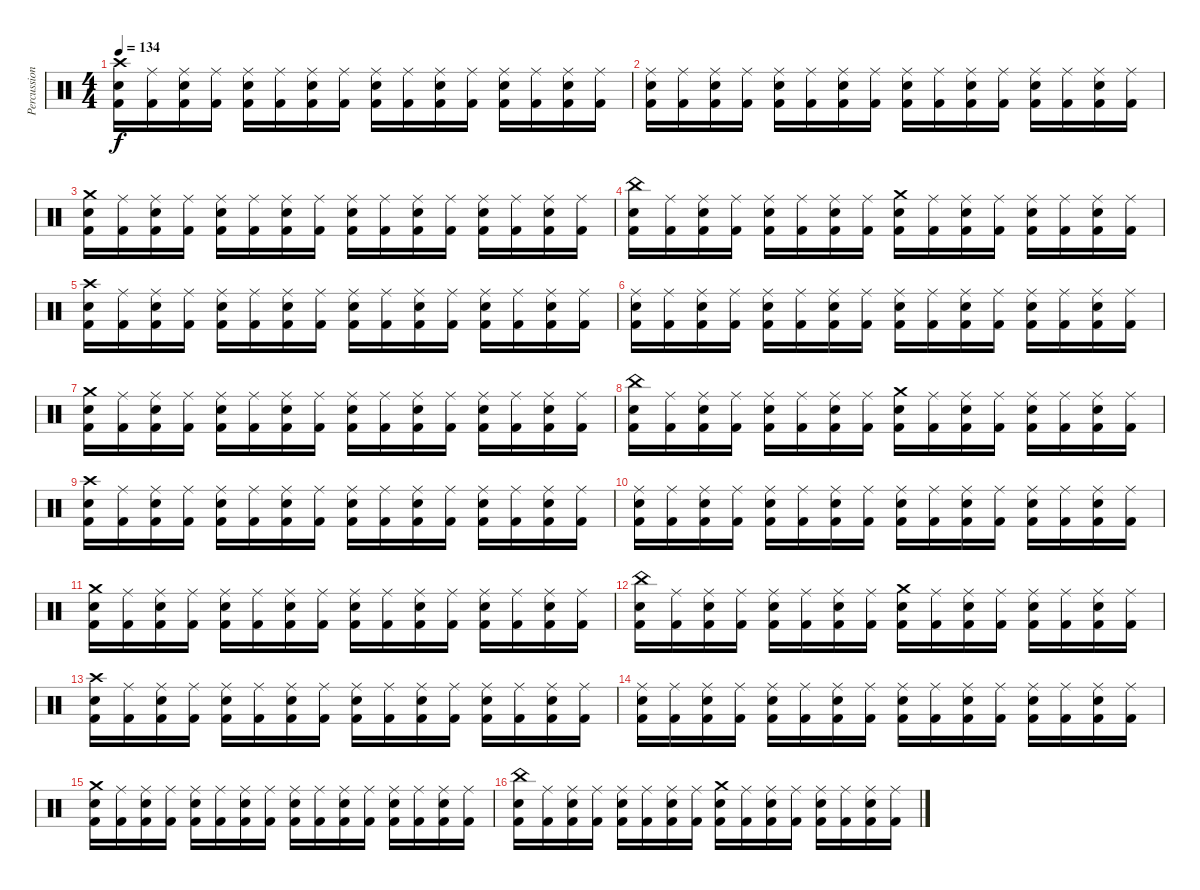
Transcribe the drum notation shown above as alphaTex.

\track ("Percussion" "Percussion") {instrument percussion}
\staff {score}
\articulation defaults
\ts (4 4)
\tempo 134
\clef neutral
\ks c
("Crash high (hit)" "Snare (hit) 2" "Kick (hit) 2").16{dy f} ("Ride (middle)" "Kick (hit) 2").16 ("Ride (middle)" "Snare (hit) 2" "Kick (hit) 2").16 ("Ride (middle)" "Kick (hit) 2").16 ("Ride (middle)" "Snare (hit) 2" "Kick (hit) 2").16 ("Ride (middle)" "Kick (hit) 2").16 ("Ride (middle)" "Snare (hit) 2" "Kick (hit) 2").16 ("Ride (middle)" "Kick (hit) 2").16 ("Ride (middle)" "Snare (hit) 2" "Kick (hit) 2").16 ("Ride (middle)" "Kick (hit) 2").16 ("Ride (middle)" "Snare (hit) 2" "Kick (hit) 2").16 ("Ride (middle)" "Kick (hit) 2").16 ("Ride (middle)" "Snare (hit) 2" "Kick (hit) 2").16 ("Ride (middle)" "Kick (hit) 2").16 ("Ride (middle)" "Snare (hit) 2" "Kick (hit) 2").16 ("Ride (middle)" "Kick (hit) 2").16 |
("Ride (middle)" "Snare (hit) 2" "Kick (hit) 2").16 ("Ride (middle)" "Kick (hit) 2").16 ("Ride (middle)" "Snare (hit) 2" "Kick (hit) 2").16 ("Ride (middle)" "Kick (hit) 2").16 ("Ride (middle)" "Snare (hit) 2" "Kick (hit) 2").16 ("Ride (middle)" "Kick (hit) 2").16 ("Ride (middle)" "Snare (hit) 2" "Kick (hit) 2").16 ("Ride (middle)" "Kick (hit) 2").16 ("Ride (middle)" "Snare (hit) 2" "Kick (hit) 2").16 ("Ride (middle)" "Kick (hit) 2").16 ("Ride (middle)" "Snare (hit) 2" "Kick (hit) 2").16 ("Ride (middle)" "Kick (hit) 2").16 ("Ride (middle)" "Snare (hit) 2" "Kick (hit) 2").16 ("Ride (middle)" "Kick (hit) 2").16 ("Ride (middle)" "Snare (hit) 2" "Kick (hit) 2").16 ("Ride (middle)" "Kick (hit) 2").16 |
("Crash medium (hit)" "Snare (hit) 2" "Kick (hit) 2").16 ("Ride (middle)" "Kick (hit) 2").16 ("Ride (middle)" "Snare (hit) 2" "Kick (hit) 2").16 ("Ride (middle)" "Kick (hit) 2").16 ("Ride (middle)" "Snare (hit) 2" "Kick (hit) 2").16 ("Ride (middle)" "Kick (hit) 2").16 ("Ride (middle)" "Snare (hit) 2" "Kick (hit) 2").16 ("Ride (middle)" "Kick (hit) 2").16 ("Ride (middle)" "Snare (hit) 2" "Kick (hit) 2").16 ("Ride (middle)" "Kick (hit) 2").16 ("Ride (middle)" "Snare (hit) 2" "Kick (hit) 2").16 ("Ride (middle)" "Kick (hit) 2").16 ("Ride (middle)" "Snare (hit) 2" "Kick (hit) 2").16 ("Ride (middle)" "Kick (hit) 2").16 ("Ride (middle)" "Snare (hit) 2" "Kick (hit) 2").16 ("Ride (middle)" "Kick (hit) 2").16 |
("China (hit)" "Snare (hit) 2" "Kick (hit) 2").16 ("Ride (middle)" "Kick (hit) 2").16 ("Ride (middle)" "Snare (hit) 2" "Kick (hit) 2").16 ("Ride (middle)" "Kick (hit) 2").16 ("Ride (middle)" "Snare (hit) 2" "Kick (hit) 2").16 ("Ride (middle)" "Kick (hit) 2").16 ("Ride (middle)" "Snare (hit) 2" "Kick (hit) 2").16 ("Ride (middle)" "Kick (hit) 2").16 ("Crash medium (hit)" "Snare (hit) 2" "Kick (hit) 2").16 ("Ride (middle)" "Kick (hit) 2").16 ("Ride (middle)" "Snare (hit) 2" "Kick (hit) 2").16 ("Ride (middle)" "Kick (hit) 2").16 ("Ride (middle)" "Snare (hit) 2" "Kick (hit) 2").16 ("Ride (middle)" "Kick (hit) 2").16 ("Ride (middle)" "Snare (hit) 2" "Kick (hit) 2").16 ("Ride (middle)" "Kick (hit) 2").16 |
("Crash high (hit)" "Snare (hit) 2" "Kick (hit) 2").16 ("Ride (middle)" "Kick (hit) 2").16 ("Ride (middle)" "Snare (hit) 2" "Kick (hit) 2").16 ("Ride (middle)" "Kick (hit) 2").16 ("Ride (middle)" "Snare (hit) 2" "Kick (hit) 2").16 ("Ride (middle)" "Kick (hit) 2").16 ("Ride (middle)" "Snare (hit) 2" "Kick (hit) 2").16 ("Ride (middle)" "Kick (hit) 2").16 ("Ride (middle)" "Snare (hit) 2" "Kick (hit) 2").16 ("Ride (middle)" "Kick (hit) 2").16 ("Ride (middle)" "Snare (hit) 2" "Kick (hit) 2").16 ("Ride (middle)" "Kick (hit) 2").16 ("Ride (middle)" "Snare (hit) 2" "Kick (hit) 2").16 ("Ride (middle)" "Kick (hit) 2").16 ("Ride (middle)" "Snare (hit) 2" "Kick (hit) 2").16 ("Ride (middle)" "Kick (hit) 2").16 |
("Ride (middle)" "Snare (hit) 2" "Kick (hit) 2").16 ("Ride (middle)" "Kick (hit) 2").16 ("Ride (middle)" "Snare (hit) 2" "Kick (hit) 2").16 ("Ride (middle)" "Kick (hit) 2").16 ("Ride (middle)" "Snare (hit) 2" "Kick (hit) 2").16 ("Ride (middle)" "Kick (hit) 2").16 ("Ride (middle)" "Snare (hit) 2" "Kick (hit) 2").16 ("Ride (middle)" "Kick (hit) 2").16 ("Ride (middle)" "Snare (hit) 2" "Kick (hit) 2").16 ("Ride (middle)" "Kick (hit) 2").16 ("Ride (middle)" "Snare (hit) 2" "Kick (hit) 2").16 ("Ride (middle)" "Kick (hit) 2").16 ("Ride (middle)" "Snare (hit) 2" "Kick (hit) 2").16 ("Ride (middle)" "Kick (hit) 2").16 ("Ride (middle)" "Snare (hit) 2" "Kick (hit) 2").16 ("Ride (middle)" "Kick (hit) 2").16 |
("Crash medium (hit)" "Snare (hit) 2" "Kick (hit) 2").16 ("Ride (middle)" "Kick (hit) 2").16 ("Ride (middle)" "Snare (hit) 2" "Kick (hit) 2").16 ("Ride (middle)" "Kick (hit) 2").16 ("Ride (middle)" "Snare (hit) 2" "Kick (hit) 2").16 ("Ride (middle)" "Kick (hit) 2").16 ("Ride (middle)" "Snare (hit) 2" "Kick (hit) 2").16 ("Ride (middle)" "Kick (hit) 2").16 ("Ride (middle)" "Snare (hit) 2" "Kick (hit) 2").16 ("Ride (middle)" "Kick (hit) 2").16 ("Ride (middle)" "Snare (hit) 2" "Kick (hit) 2").16 ("Ride (middle)" "Kick (hit) 2").16 ("Ride (middle)" "Snare (hit) 2" "Kick (hit) 2").16 ("Ride (middle)" "Kick (hit) 2").16 ("Ride (middle)" "Snare (hit) 2" "Kick (hit) 2").16 ("Ride (middle)" "Kick (hit) 2").16 |
("China (hit)" "Snare (hit) 2" "Kick (hit) 2").16 ("Ride (middle)" "Kick (hit) 2").16 ("Ride (middle)" "Snare (hit) 2" "Kick (hit) 2").16 ("Ride (middle)" "Kick (hit) 2").16 ("Ride (middle)" "Snare (hit) 2" "Kick (hit) 2").16 ("Ride (middle)" "Kick (hit) 2").16 ("Ride (middle)" "Snare (hit) 2" "Kick (hit) 2").16 ("Ride (middle)" "Kick (hit) 2").16 ("Crash medium (hit)" "Snare (hit) 2" "Kick (hit) 2").16 ("Ride (middle)" "Kick (hit) 2").16 ("Ride (middle)" "Snare (hit) 2" "Kick (hit) 2").16 ("Ride (middle)" "Kick (hit) 2").16 ("Ride (middle)" "Snare (hit) 2" "Kick (hit) 2").16 ("Ride (middle)" "Kick (hit) 2").16 ("Ride (middle)" "Snare (hit) 2" "Kick (hit) 2").16 ("Ride (middle)" "Kick (hit) 2").16 |
("Crash high (hit)" "Snare (hit) 2" "Kick (hit) 2").16 ("Ride (middle)" "Kick (hit) 2").16 ("Ride (middle)" "Snare (hit) 2" "Kick (hit) 2").16 ("Ride (middle)" "Kick (hit) 2").16 ("Ride (middle)" "Snare (hit) 2" "Kick (hit) 2").16 ("Ride (middle)" "Kick (hit) 2").16 ("Ride (middle)" "Snare (hit) 2" "Kick (hit) 2").16 ("Ride (middle)" "Kick (hit) 2").16 ("Ride (middle)" "Snare (hit) 2" "Kick (hit) 2").16 ("Ride (middle)" "Kick (hit) 2").16 ("Ride (middle)" "Snare (hit) 2" "Kick (hit) 2").16 ("Ride (middle)" "Kick (hit) 2").16 ("Ride (middle)" "Snare (hit) 2" "Kick (hit) 2").16 ("Ride (middle)" "Kick (hit) 2").16 ("Ride (middle)" "Snare (hit) 2" "Kick (hit) 2").16 ("Ride (middle)" "Kick (hit) 2").16 |
("Ride (middle)" "Snare (hit) 2" "Kick (hit) 2").16 ("Ride (middle)" "Kick (hit) 2").16 ("Ride (middle)" "Snare (hit) 2" "Kick (hit) 2").16 ("Ride (middle)" "Kick (hit) 2").16 ("Ride (middle)" "Snare (hit) 2" "Kick (hit) 2").16 ("Ride (middle)" "Kick (hit) 2").16 ("Ride (middle)" "Snare (hit) 2" "Kick (hit) 2").16 ("Ride (middle)" "Kick (hit) 2").16 ("Ride (middle)" "Snare (hit) 2" "Kick (hit) 2").16 ("Ride (middle)" "Kick (hit) 2").16 ("Ride (middle)" "Snare (hit) 2" "Kick (hit) 2").16 ("Ride (middle)" "Kick (hit) 2").16 ("Ride (middle)" "Snare (hit) 2" "Kick (hit) 2").16 ("Ride (middle)" "Kick (hit) 2").16 ("Ride (middle)" "Snare (hit) 2" "Kick (hit) 2").16 ("Ride (middle)" "Kick (hit) 2").16 |
("Crash medium (hit)" "Snare (hit) 2" "Kick (hit) 2").16 ("Ride (middle)" "Kick (hit) 2").16 ("Ride (middle)" "Snare (hit) 2" "Kick (hit) 2").16 ("Ride (middle)" "Kick (hit) 2").16 ("Ride (middle)" "Snare (hit) 2" "Kick (hit) 2").16 ("Ride (middle)" "Kick (hit) 2").16 ("Ride (middle)" "Snare (hit) 2" "Kick (hit) 2").16 ("Ride (middle)" "Kick (hit) 2").16 ("Ride (middle)" "Snare (hit) 2" "Kick (hit) 2").16 ("Ride (middle)" "Kick (hit) 2").16 ("Ride (middle)" "Snare (hit) 2" "Kick (hit) 2").16 ("Ride (middle)" "Kick (hit) 2").16 ("Ride (middle)" "Snare (hit) 2" "Kick (hit) 2").16 ("Ride (middle)" "Kick (hit) 2").16 ("Ride (middle)" "Snare (hit) 2" "Kick (hit) 2").16 ("Ride (middle)" "Kick (hit) 2").16 |
("China (hit)" "Snare (hit) 2" "Kick (hit) 2").16 ("Ride (middle)" "Kick (hit) 2").16 ("Ride (middle)" "Snare (hit) 2" "Kick (hit) 2").16 ("Ride (middle)" "Kick (hit) 2").16 ("Ride (middle)" "Snare (hit) 2" "Kick (hit) 2").16 ("Ride (middle)" "Kick (hit) 2").16 ("Ride (middle)" "Snare (hit) 2" "Kick (hit) 2").16 ("Ride (middle)" "Kick (hit) 2").16 ("Crash medium (hit)" "Snare (hit) 2" "Kick (hit) 2").16 ("Ride (middle)" "Kick (hit) 2").16 ("Ride (middle)" "Snare (hit) 2" "Kick (hit) 2").16 ("Ride (middle)" "Kick (hit) 2").16 ("Ride (middle)" "Snare (hit) 2" "Kick (hit) 2").16 ("Ride (middle)" "Kick (hit) 2").16 ("Ride (middle)" "Snare (hit) 2" "Kick (hit) 2").16 ("Ride (middle)" "Kick (hit) 2").16 |
("Crash high (hit)" "Snare (hit) 2" "Kick (hit) 2").16 ("Ride (middle)" "Kick (hit) 2").16 ("Ride (middle)" "Snare (hit) 2" "Kick (hit) 2").16 ("Ride (middle)" "Kick (hit) 2").16 ("Ride (middle)" "Snare (hit) 2" "Kick (hit) 2").16 ("Ride (middle)" "Kick (hit) 2").16 ("Ride (middle)" "Snare (hit) 2" "Kick (hit) 2").16 ("Ride (middle)" "Kick (hit) 2").16 ("Ride (middle)" "Snare (hit) 2" "Kick (hit) 2").16 ("Ride (middle)" "Kick (hit) 2").16 ("Ride (middle)" "Snare (hit) 2" "Kick (hit) 2").16 ("Ride (middle)" "Kick (hit) 2").16 ("Ride (middle)" "Snare (hit) 2" "Kick (hit) 2").16 ("Ride (middle)" "Kick (hit) 2").16 ("Ride (middle)" "Snare (hit) 2" "Kick (hit) 2").16 ("Ride (middle)" "Kick (hit) 2").16 |
("Ride (middle)" "Snare (hit) 2" "Kick (hit) 2").16 ("Ride (middle)" "Kick (hit) 2").16 ("Ride (middle)" "Snare (hit) 2" "Kick (hit) 2").16 ("Ride (middle)" "Kick (hit) 2").16 ("Ride (middle)" "Snare (hit) 2" "Kick (hit) 2").16 ("Ride (middle)" "Kick (hit) 2").16 ("Ride (middle)" "Snare (hit) 2" "Kick (hit) 2").16 ("Ride (middle)" "Kick (hit) 2").16 ("Ride (middle)" "Snare (hit) 2" "Kick (hit) 2").16 ("Ride (middle)" "Kick (hit) 2").16 ("Ride (middle)" "Snare (hit) 2" "Kick (hit) 2").16 ("Ride (middle)" "Kick (hit) 2").16 ("Ride (middle)" "Snare (hit) 2" "Kick (hit) 2").16 ("Ride (middle)" "Kick (hit) 2").16 ("Ride (middle)" "Snare (hit) 2" "Kick (hit) 2").16 ("Ride (middle)" "Kick (hit) 2").16 |
("Crash medium (hit)" "Snare (hit) 2" "Kick (hit) 2").16 ("Ride (middle)" "Kick (hit) 2").16 ("Ride (middle)" "Snare (hit) 2" "Kick (hit) 2").16 ("Ride (middle)" "Kick (hit) 2").16 ("Ride (middle)" "Snare (hit) 2" "Kick (hit) 2").16 ("Ride (middle)" "Kick (hit) 2").16 ("Ride (middle)" "Snare (hit) 2" "Kick (hit) 2").16 ("Ride (middle)" "Kick (hit) 2").16 ("Ride (middle)" "Snare (hit) 2" "Kick (hit) 2").16 ("Ride (middle)" "Kick (hit) 2").16 ("Ride (middle)" "Snare (hit) 2" "Kick (hit) 2").16 ("Ride (middle)" "Kick (hit) 2").16 ("Ride (middle)" "Snare (hit) 2" "Kick (hit) 2").16 ("Ride (middle)" "Kick (hit) 2").16 ("Ride (middle)" "Snare (hit) 2" "Kick (hit) 2").16 ("Ride (middle)" "Kick (hit) 2").16 |
("China (hit)" "Snare (hit) 2" "Kick (hit) 2").16 ("Ride (middle)" "Kick (hit) 2").16 ("Ride (middle)" "Snare (hit) 2" "Kick (hit) 2").16 ("Ride (middle)" "Kick (hit) 2").16 ("Ride (middle)" "Snare (hit) 2" "Kick (hit) 2").16 ("Ride (middle)" "Kick (hit) 2").16 ("Ride (middle)" "Snare (hit) 2" "Kick (hit) 2").16 ("Ride (middle)" "Kick (hit) 2").16 ("Crash medium (hit)" "Snare (hit) 2" "Kick (hit) 2").16 ("Ride (middle)" "Kick (hit) 2").16 ("Ride (middle)" "Snare (hit) 2" "Kick (hit) 2").16 ("Ride (middle)" "Kick (hit) 2").16 ("Ride (middle)" "Snare (hit) 2" "Kick (hit) 2").16 ("Ride (middle)" "Kick (hit) 2").16 ("Ride (middle)" "Snare (hit) 2" "Kick (hit) 2").16 ("Ride (middle)" "Kick (hit) 2").16
